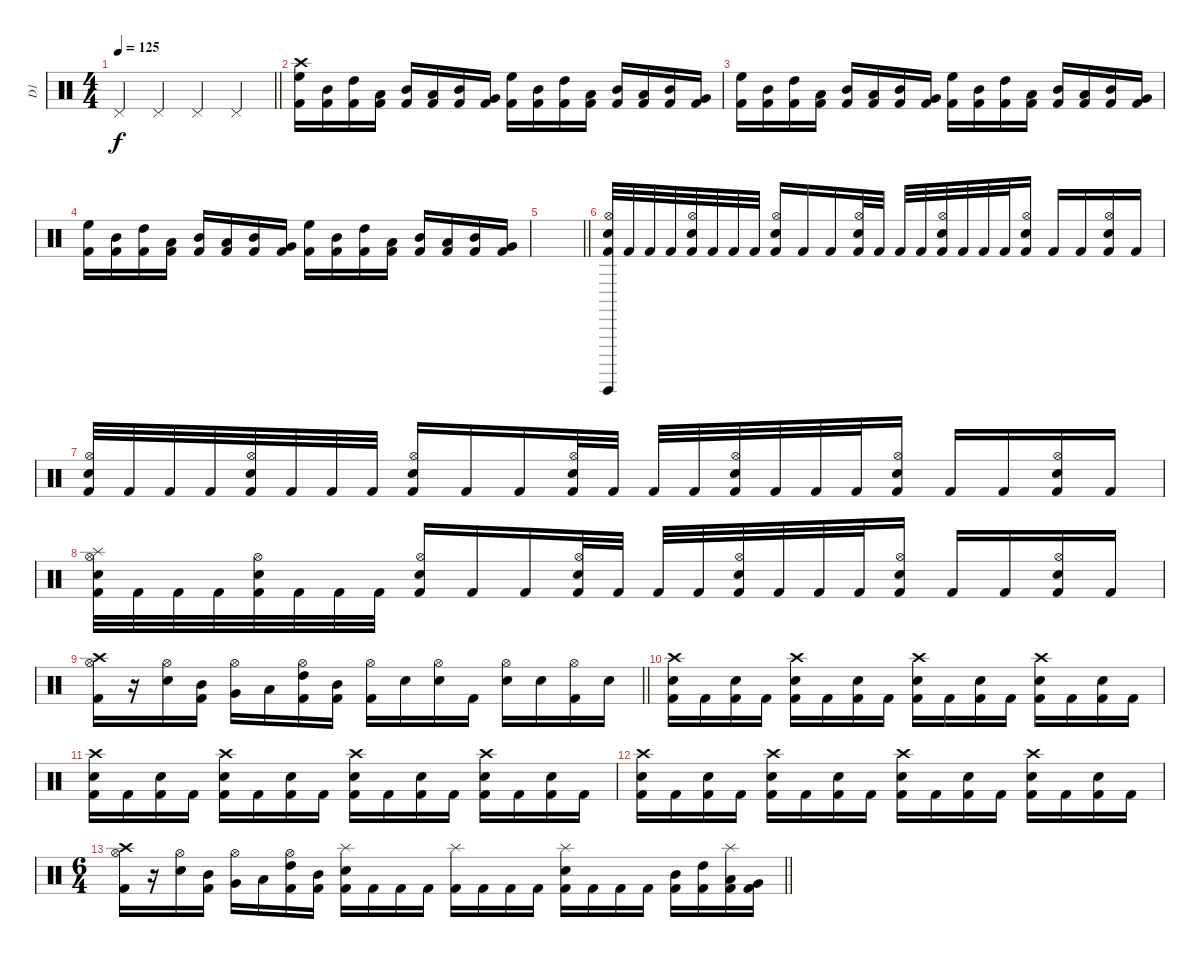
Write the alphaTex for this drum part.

\track ("D1" "D1") {instrument percussion}
\staff {score}
\articulation defaults
\ts (4 4)
\tempo 125
\clef neutral
\barLineRight lightlight
\ks c "Pedal Hi-Hat (hit)".4{dy f} "Pedal Hi-Hat (hit)".4 "Pedal Hi-Hat (hit)".4 "Pedal Hi-Hat (hit)".4
|
("High Floor Tom (hit)" "Crash high (hit)" "Kick (hit) 2").16 ("Mid Tom (hit)" "Kick (hit) 2").16 ("High Tom (hit)" "Kick (hit) 2").16 ("Low Tom (hit)" "Kick (hit) 2").16 ("Mid Tom (hit)" "Kick (hit) 2").16 ("Low Tom (hit)" "Kick (hit) 2").16 ("Mid Tom (hit)" "Kick (hit) 2").16 ("Very Low Tom (hit)" "Kick (hit) 2").16 ("High Floor Tom (hit)" "Kick (hit) 2").16 ("Mid Tom (hit)" "Kick (hit) 2").16 ("High Tom (hit)" "Kick (hit) 2").16 ("Low Tom (hit)" "Kick (hit) 2").16 ("Mid Tom (hit)" "Kick (hit) 2").16 ("Low Tom (hit)" "Kick (hit) 2").16 ("Mid Tom (hit)" "Kick (hit) 2").16 ("Very Low Tom (hit)" "Kick (hit) 2").16 |
("High Floor Tom (hit)" "Kick (hit) 2").16 ("Mid Tom (hit)" "Kick (hit) 2").16 ("High Tom (hit)" "Kick (hit) 2").16 ("Low Tom (hit)" "Kick (hit) 2").16 ("Mid Tom (hit)" "Kick (hit) 2").16 ("Low Tom (hit)" "Kick (hit) 2").16 ("Mid Tom (hit)" "Kick (hit) 2").16 ("Very Low Tom (hit)" "Kick (hit) 2").16 ("High Floor Tom (hit)" "Kick (hit) 2").16 ("Mid Tom (hit)" "Kick (hit) 2").16 ("High Tom (hit)" "Kick (hit) 2").16 ("Low Tom (hit)" "Kick (hit) 2").16 ("Mid Tom (hit)" "Kick (hit) 2").16 ("Low Tom (hit)" "Kick (hit) 2").16 ("Mid Tom (hit)" "Kick (hit) 2").16 ("Very Low Tom (hit)" "Kick (hit) 2").16 |
("High Floor Tom (hit)" "Kick (hit) 2").16 ("Mid Tom (hit)" "Kick (hit) 2").16 ("High Tom (hit)" "Kick (hit) 2").16 ("Low Tom (hit)" "Kick (hit) 2").16 ("Mid Tom (hit)" "Kick (hit) 2").16 ("Low Tom (hit)" "Kick (hit) 2").16 ("Mid Tom (hit)" "Kick (hit) 2").16 ("Very Low Tom (hit)" "Kick (hit) 2").16 ("High Floor Tom (hit)" "Kick (hit) 2").16 ("Mid Tom (hit)" "Kick (hit) 2").16 ("High Tom (hit)" "Kick (hit) 2").16 ("Low Tom (hit)" "Kick (hit) 2").16 ("Mid Tom (hit)" "Kick (hit) 2").16 ("Low Tom (hit)" "Kick (hit) 2").16 ("Mid Tom (hit)" "Kick (hit) 2").16 ("Very Low Tom (hit)" "Kick (hit) 2").16 |
\barLineRight lightlight
|
("Guiro (hit)" "Hi-Hat (open)" "Snare (hit) 2" "Kick (hit) 2").32 "Kick (hit) 2".32 "Kick (hit) 2".32 "Kick (hit) 2".32 ("Hi-Hat (open)" "Snare (hit) 2" "Kick (hit) 2").32 "Kick (hit) 2".32 "Kick (hit) 2".32 "Kick (hit) 2".32 ("Hi-Hat (open)" "Snare (hit) 2" "Kick (hit) 2").16 "Kick (hit) 2".16 "Kick (hit) 2".16 ("Hi-Hat (open)" "Snare (hit) 2" "Kick (hit) 2").32 "Kick (hit) 2".32 "Kick (hit) 2".32 "Kick (hit) 2".32 ("Hi-Hat (open)" "Snare (hit) 2" "Kick (hit) 2").32 "Kick (hit) 2".32 "Kick (hit) 2".32 "Kick (hit) 2".32 ("Hi-Hat (open)" "Snare (hit) 2" "Kick (hit) 2").16 "Kick (hit) 2".16 "Kick (hit) 2".16 ("Hi-Hat (open)" "Snare (hit) 2" "Kick (hit) 2").16 "Kick (hit) 2".16 |
("Hi-Hat (open)" "Snare (hit) 2" "Kick (hit) 2").32 "Kick (hit) 2".32 "Kick (hit) 2".32 "Kick (hit) 2".32 ("Hi-Hat (open)" "Snare (hit) 2" "Kick (hit) 2").32 "Kick (hit) 2".32 "Kick (hit) 2".32 "Kick (hit) 2".32 ("Hi-Hat (open)" "Snare (hit) 2" "Kick (hit) 2").16 "Kick (hit) 2".16 "Kick (hit) 2".16 ("Hi-Hat (open)" "Snare (hit) 2" "Kick (hit) 2").32 "Kick (hit) 2".32 "Kick (hit) 2".32 "Kick (hit) 2".32 ("Hi-Hat (open)" "Snare (hit) 2" "Kick (hit) 2").32 "Kick (hit) 2".32 "Kick (hit) 2".32 "Kick (hit) 2".32 ("Hi-Hat (open)" "Snare (hit) 2" "Kick (hit) 2").16 "Kick (hit) 2".16 "Kick (hit) 2".16 ("Hi-Hat (open)" "Snare (hit) 2" "Kick (hit) 2").16 "Kick (hit) 2".16 |
("Splash (hit)" "Hi-Hat (open)" "Snare (hit) 2" "Kick (hit) 2").32 "Kick (hit) 2".32 "Kick (hit) 2".32 "Kick (hit) 2".32 ("Hi-Hat (open)" "Snare (hit) 2" "Kick (hit) 2").32 "Kick (hit) 2".32 "Kick (hit) 2".32 "Kick (hit) 2".32 ("Hi-Hat (open)" "Snare (hit) 2" "Kick (hit) 2").16 "Kick (hit) 2".16 "Kick (hit) 2".16 ("Hi-Hat (open)" "Snare (hit) 2" "Kick (hit) 2").32 "Kick (hit) 2".32 "Kick (hit) 2".32 "Kick (hit) 2".32 ("Hi-Hat (open)" "Snare (hit) 2" "Kick (hit) 2").32 "Kick (hit) 2".32 "Kick (hit) 2".32 "Kick (hit) 2".32 ("Hi-Hat (open)" "Snare (hit) 2" "Kick (hit) 2").16 "Kick (hit) 2".16 "Kick (hit) 2".16 ("Hi-Hat (open)" "Snare (hit) 2" "Kick (hit) 2").16 "Kick (hit) 2".16 |
\barLineRight lightlight
("Crash high (hit)" "Hi-Hat (open)" "Kick (hit) 2").16 r.16 ("Hi-Hat (open)" "Snare (hit) 2").16 ("Mid Tom (hit)" "Kick (hit) 2").16 ("Hi-Hat (open)" "Very Low Tom (hit)").16 "Low Tom (hit)".16 ("Hi-Hat (open)" "High Tom (hit)" "Kick (hit) 2").16 ("Mid Tom (hit)" "Kick (hit) 2").16 ("Hi-Hat (open)" "Kick (hit) 2").16 "Snare (hit) 2".16 ("Hi-Hat (open)" "Snare (hit) 2").16 "Kick (hit) 2".16 ("Hi-Hat (open)" "Snare (hit) 2").16 "Snare (hit) 2".16 ("Hi-Hat (open)" "Kick (hit) 2").16 "Snare (hit) 2".16 |
("Crash high (hit)" "Snare (hit) 2" "Kick (hit) 2").16 "Kick (hit) 2".16 ("Snare (hit) 2" "Kick (hit) 2").16 "Kick (hit) 2".16 ("Crash high (hit)" "Snare (hit) 2" "Kick (hit) 2").16 "Kick (hit) 2".16 ("Snare (hit) 2" "Kick (hit) 2").16 "Kick (hit) 2".16 ("Crash high (hit)" "Snare (hit) 2" "Kick (hit) 2").16 "Kick (hit) 2".16 ("Snare (hit) 2" "Kick (hit) 2").16 "Kick (hit) 2".16 ("Crash high (hit)" "Snare (hit) 2" "Kick (hit) 2").16 "Kick (hit) 2".16 ("Snare (hit) 2" "Kick (hit) 2").16 "Kick (hit) 2".16 |
("Crash high (hit)" "Snare (hit) 2" "Kick (hit) 2").16 "Kick (hit) 2".16 ("Snare (hit) 2" "Kick (hit) 2").16 "Kick (hit) 2".16 ("Crash high (hit)" "Snare (hit) 2" "Kick (hit) 2").16 "Kick (hit) 2".16 ("Snare (hit) 2" "Kick (hit) 2").16 "Kick (hit) 2".16 ("Crash high (hit)" "Snare (hit) 2" "Kick (hit) 2").16 "Kick (hit) 2".16 ("Snare (hit) 2" "Kick (hit) 2").16 "Kick (hit) 2".16 ("Crash high (hit)" "Snare (hit) 2" "Kick (hit) 2").16 "Kick (hit) 2".16 ("Snare (hit) 2" "Kick (hit) 2").16 "Kick (hit) 2".16 |
("Crash high (hit)" "Snare (hit) 2" "Kick (hit) 2").16 "Kick (hit) 2".16 ("Snare (hit) 2" "Kick (hit) 2").16 "Kick (hit) 2".16 ("Crash high (hit)" "Snare (hit) 2" "Kick (hit) 2").16 "Kick (hit) 2".16 ("Snare (hit) 2" "Kick (hit) 2").16 "Kick (hit) 2".16 ("Crash high (hit)" "Snare (hit) 2" "Kick (hit) 2").16 "Kick (hit) 2".16 ("Snare (hit) 2" "Kick (hit) 2").16 "Kick (hit) 2".16 ("Crash high (hit)" "Snare (hit) 2" "Kick (hit) 2").16 "Kick (hit) 2".16 ("Snare (hit) 2" "Kick (hit) 2").16 "Kick (hit) 2".16 |
\ts (6 4)
\barLineRight lightlight
("Crash high (hit)" "Hi-Hat (open)" "Kick (hit) 2").16 r.16 ("Hi-Hat (open)" "Snare (hit) 2").16 ("Mid Tom (hit)" "Kick (hit) 2").16 ("Hi-Hat (open)" "Very Low Tom (hit)").16 "Low Tom (hit)".16 ("Hi-Hat (open)" "High Tom (hit)" "Kick (hit) 2").16 ("Mid Tom (hit)" "Kick (hit) 2").16 ("Splash (hit)" "Snare (hit) 2" "Kick (hit) 2").16 "Kick (hit) 2".16 "Kick (hit) 2".16 "Kick (hit) 2".16 ("Splash (hit)" "Kick (hit) 2").16 "Kick (hit) 2".16 "Kick (hit) 2".16 "Kick (hit) 2".16 ("Splash (hit)" "Snare (hit) 2" "Kick (hit) 2").16 "Kick (hit) 2".16 "Kick (hit) 2".16 "Kick (hit) 2".16 ("Mid Tom (hit)" "Kick (hit) 2").16 ("High Tom (hit)" "Kick (hit) 2").16 ("Splash (hit)" "Low Tom (hit)" "Kick (hit) 2").16 ("Very Low Tom (hit)" "Kick (hit) 2").16
